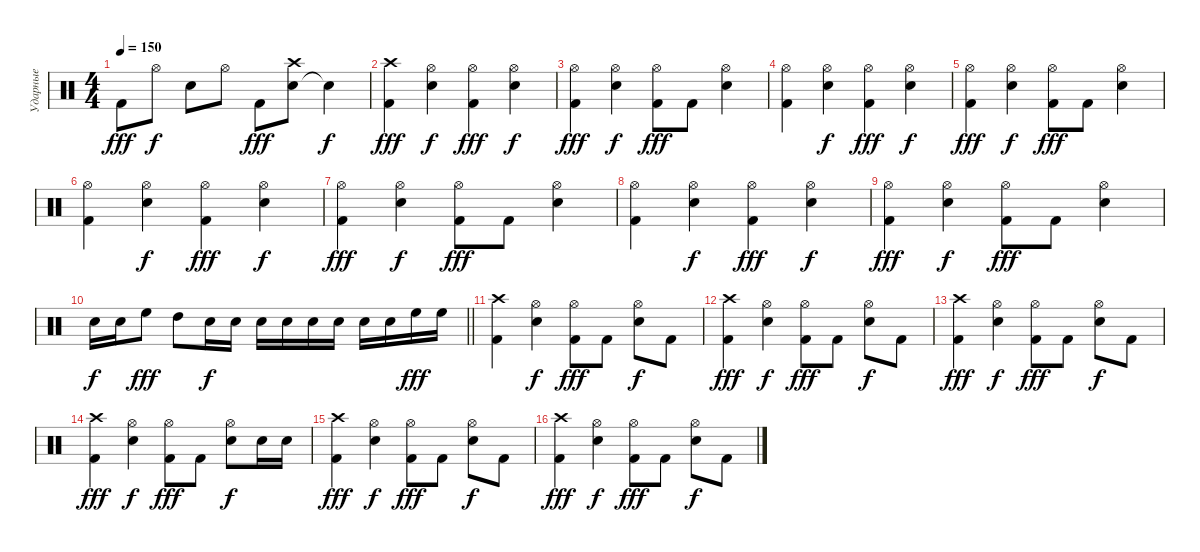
\track ("Ударные" "Ударные") {instrument percussion}
\staff {score}
\articulation defaults
\ts (4 4)
\tempo 150
\clef neutral
\ks c "Kick (hit) 2".8{dy fff} "Hi-Hat (open)".8{dy f} "Snare (hit) 2".8 "Hi-Hat (open)".8 "Kick (hit) 2".8{dy fff}
("Snare (hit) 2" "Crash high (hit)").8 "Snare (hit)"{t}.4{dy f} |
("Kick (hit) 2" "Crash high (hit)").4{dy fff} ("Snare (hit) 2" "Hi-Hat (open)").4{dy f} ("Kick (hit) 2" "Hi-Hat (open)").4{dy fff} ("Snare (hit) 2" "Hi-Hat (open)").4{dy f} |
("Kick (hit) 2" "Hi-Hat (open)").4{dy fff} ("Snare (hit) 2" "Hi-Hat (open)").4{dy f} ("Kick (hit) 2" "Hi-Hat (open)").8{dy fff} "Kick (hit) 2".8 ("Snare (hit) 2" "Hi-Hat (open)").4 |
("Kick (hit) 2" "Hi-Hat (open)").4 ("Snare (hit) 2" "Hi-Hat (open)").4{dy f} ("Kick (hit) 2" "Hi-Hat (open)").4{dy fff} ("Snare (hit) 2" "Hi-Hat (open)").4{dy f} |
("Kick (hit) 2" "Hi-Hat (open)").4{dy fff} ("Snare (hit) 2" "Hi-Hat (open)").4{dy f} ("Kick (hit) 2" "Hi-Hat (open)").8{dy fff} "Kick (hit) 2".8 ("Snare (hit) 2" "Hi-Hat (open)").4 |
("Kick (hit) 2" "Hi-Hat (open)").4 ("Snare (hit) 2" "Hi-Hat (open)").4{dy f} ("Kick (hit) 2" "Hi-Hat (open)").4{dy fff} ("Snare (hit) 2" "Hi-Hat (open)").4{dy f} |
("Kick (hit) 2" "Hi-Hat (open)").4{dy fff} ("Snare (hit) 2" "Hi-Hat (open)").4{dy f} ("Kick (hit) 2" "Hi-Hat (open)").8{dy fff} "Kick (hit) 2".8 ("Snare (hit) 2" "Hi-Hat (open)").4 |
("Kick (hit) 2" "Hi-Hat (open)").4 ("Snare (hit) 2" "Hi-Hat (open)").4{dy f} ("Kick (hit) 2" "Hi-Hat (open)").4{dy fff} ("Snare (hit) 2" "Hi-Hat (open)").4{dy f} |
("Kick (hit) 2" "Hi-Hat (open)").4{dy fff} ("Snare (hit) 2" "Hi-Hat (open)").4{dy f} ("Kick (hit) 2" "Hi-Hat (open)").8{dy fff} "Kick (hit) 2".8 ("Snare (hit) 2" "Hi-Hat (open)").4 |
\barLineRight lightlight "Snare (hit) 2".16{dy f} "Snare (hit) 2".16 "High Floor Tom (hit)".8{dy fff} "High Tom (hit)".8 "Snare (hit) 2".16{dy f} "Snare (hit) 2".16 "Snare (hit) 2".16 "Snare (hit) 2".16 "Electric Snare (hit)".16 "Electric Snare (hit)".16 "Electric Snare (hit)".16 "Electric Snare (hit)".16 "High Floor Tom (hit)".16{dy fff} "High Floor Tom (hit)".16
|
("Kick (hit) 2" "Crash high (hit)").4 ("Snare (hit) 2" "Hi-Hat (open)").4{dy f} ("Kick (hit) 2" "Hi-Hat (open)").8{dy fff} "Kick (hit) 2".8 ("Snare (hit) 2" "Hi-Hat (open)").8{dy f} "Kick (hit) 2".8 |
("Kick (hit) 2" "Crash high (hit)").4{dy fff} ("Snare (hit) 2" "Hi-Hat (open)").4{dy f} ("Kick (hit) 2" "Hi-Hat (open)").8{dy fff} "Kick (hit) 2".8 ("Snare (hit) 2" "Hi-Hat (open)").8{dy f} "Kick (hit) 2".8 |
("Kick (hit) 2" "Crash high (hit)").4{dy fff} ("Snare (hit) 2" "Hi-Hat (open)").4{dy f} ("Kick (hit) 2" "Hi-Hat (open)").8{dy fff} "Kick (hit) 2".8 ("Snare (hit) 2" "Hi-Hat (open)").8{dy f} "Kick (hit) 2".8 |
("Kick (hit) 2" "Crash high (hit)").4{dy fff} ("Snare (hit) 2" "Hi-Hat (open)").4{dy f} ("Kick (hit) 2" "Hi-Hat (open)").8{dy fff} "Kick (hit) 2".8 ("Snare (hit) 2" "Hi-Hat (open)").8{dy f} "Snare (hit) 2".16 "Snare (hit) 2".16 |
("Kick (hit) 2" "Crash high (hit)").4{dy fff} ("Snare (hit) 2" "Hi-Hat (open)").4{dy f} ("Kick (hit) 2" "Hi-Hat (open)").8{dy fff} "Kick (hit) 2".8 ("Snare (hit) 2" "Hi-Hat (open)").8{dy f} "Kick (hit) 2".8 |
("Kick (hit) 2" "Crash high (hit)").4{dy fff} ("Snare (hit) 2" "Hi-Hat (open)").4{dy f} ("Kick (hit) 2" "Hi-Hat (open)").8{dy fff} "Kick (hit) 2".8 ("Snare (hit) 2" "Hi-Hat (open)").8{dy f} "Kick (hit) 2".8
